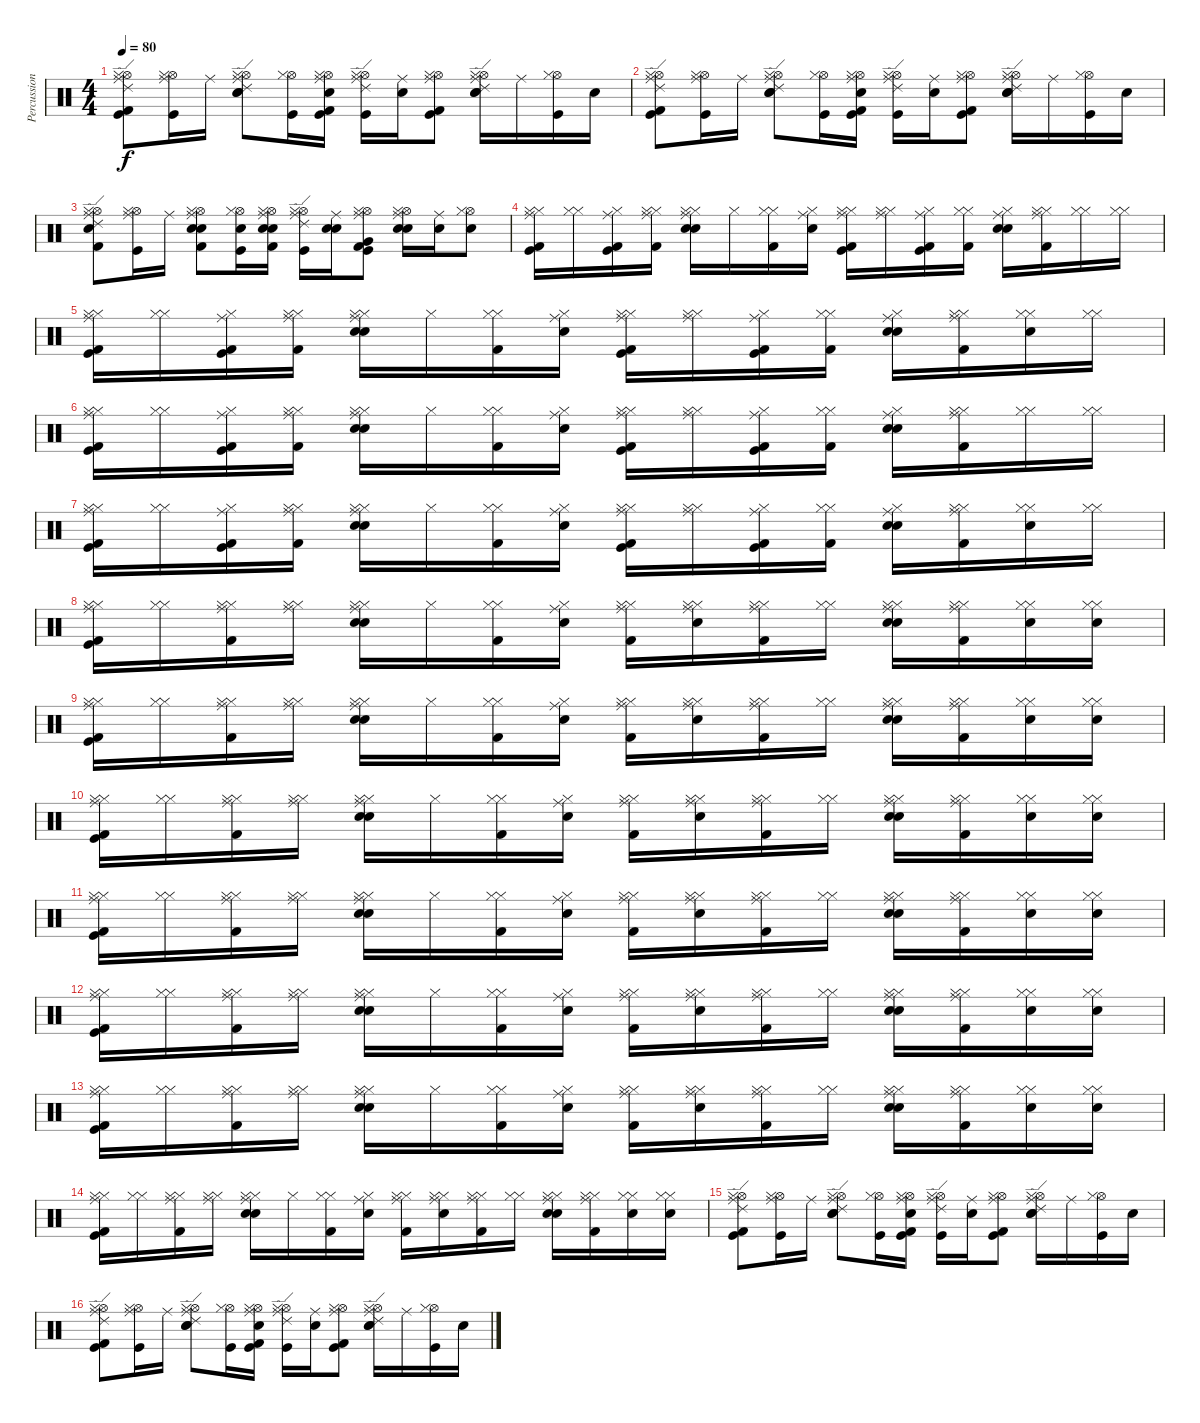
\track ("Percussions" "Percussion") {instrument percussion}
\staff {score}
\articulation defaults
\ts (4 4)
\tempo 80
\clef neutral
\ks c
("Hi-Hat (open)" "Hi-Hat (closed)" "Ride (middle)" "Ride (edge) 2" "Kick (hit)" "Kick (hit) 2").8{dy f} ("Hi-Hat (open)" "Hi-Hat (closed)" "Ride (middle)" "Kick (hit)").16 "Ride (middle)".16 ("Electric Snare (hit)" "Hi-Hat (open)" "Snare (hit) 2" "Hi-Hat (closed)" "Ride (middle)" "Ride (edge) 2").8 ("Hi-Hat (open)" "Hi-Hat (closed)" "Kick (hit)").16 ("Hi-Hat (open)" "Hi-Hat (closed)" "Ride (middle)" "Snare (hit) 2" "Kick (hit)" "Kick (hit) 2").16 ("Hi-Hat (open)" "Hi-Hat (closed)" "Ride (middle)" "Kick (hit)" "Ride (edge) 2").16 ("Ride (middle)" "Snare (hit) 2").16 ("Hi-Hat (open)" "Hi-Hat (closed)" "Ride (middle)" "Kick (hit)" "Kick (hit) 2").8 ("Electric Snare (hit)" "Hi-Hat (open)" "Snare (hit) 2" "Hi-Hat (closed)" "Ride (middle)" "Ride (edge) 2").16 "Ride (middle)".16 ("Hi-Hat (open)" "Hi-Hat (closed)" "Kick (hit)").16 "Snare (hit) 2".16 |
("Hi-Hat (open)" "Hi-Hat (closed)" "Ride (middle)" "Ride (edge) 2" "Kick (hit)" "Kick (hit) 2").8 ("Hi-Hat (open)" "Hi-Hat (closed)" "Ride (middle)" "Kick (hit)").16 "Ride (middle)".16 ("Electric Snare (hit)" "Hi-Hat (open)" "Snare (hit) 2" "Hi-Hat (closed)" "Ride (middle)" "Ride (edge) 2").8 ("Hi-Hat (open)" "Hi-Hat (closed)" "Kick (hit)").16 ("Hi-Hat (open)" "Hi-Hat (closed)" "Ride (middle)" "Snare (hit) 2" "Kick (hit)" "Kick (hit) 2").16 ("Hi-Hat (open)" "Hi-Hat (closed)" "Ride (middle)" "Kick (hit)" "Ride (edge) 2").16 ("Ride (middle)" "Snare (hit) 2").16 ("Hi-Hat (open)" "Hi-Hat (closed)" "Ride (middle)" "Kick (hit)" "Kick (hit) 2").8 ("Electric Snare (hit)" "Hi-Hat (open)" "Snare (hit) 2" "Hi-Hat (closed)" "Ride (middle)" "Ride (edge) 2").16 "Ride (middle)".16 ("Hi-Hat (open)" "Hi-Hat (closed)" "Kick (hit)").16 "Snare (hit) 2".16 |
("Hi-Hat (open)" "Hi-Hat (closed)" "Ride (middle)" "Electric Snare (hit)" "Ride (edge) 2" "Kick (hit) 2").8 ("Hi-Hat (open)" "Hi-Hat (closed)" "Ride (middle)" "Kick (hit)").16 "Ride (middle)".16 ("Electric Snare (hit)" "Hi-Hat (open)" "Snare (hit) 2" "Hi-Hat (closed)" "Ride (middle)" "Kick (hit) 2").8 ("Hi-Hat (open)" "Hi-Hat (closed)" "Electric Snare (hit)" "Kick (hit)").16 ("Hi-Hat (open)" "Hi-Hat (closed)" "Ride (middle)" "Electric Snare (hit)" "Snare (hit) 2" "Kick (hit) 2").16 ("Hi-Hat (open)" "Hi-Hat (closed)" "Ride (middle)" "Kick (hit)" "Ride (edge) 2").16 ("Ride (middle)" "Electric Snare (hit)" "Snare (hit) 2").16 ("Hi-Hat (open)" "Hi-Hat (closed)" "Ride (middle)" "Very Low Tom (hit)" "Kick (hit)" "Kick (hit) 2").8 ("Electric Snare (hit)" "Hi-Hat (open)" "Snare (hit) 2" "Hi-Hat (closed)" "Ride (middle)").16 ("Ride (middle)" "Electric Snare (hit)").16 ("Hi-Hat (open)" "Hi-Hat (closed)" "Electric Snare (hit)").8 |
("Ride (middle)" "Hi-Hat (closed)" "Hi-Hat (closed)" "Kick (hit)" "Kick (hit) 2").16 ("Hi-Hat (closed)" "Hi-Hat (closed)").16 ("Hi-Hat (closed)" "Ride (middle)" "Kick (hit)" "Kick (hit) 2").16 ("Hi-Hat (closed)" "Hi-Hat (closed)" "Ride (middle)" "Kick (hit) 2").16 ("Snare (hit) 2" "Electric Snare (hit)" "Hi-Hat (closed)" "Hi-Hat (closed)" "Ride (middle)").16 "Hi-Hat (closed)".16 ("Hi-Hat (closed)" "Hi-Hat (closed)" "Kick (hit) 2").16 ("Electric Snare (hit)" "Hi-Hat (closed)" "Ride (middle)").16 ("Hi-Hat (closed)" "Hi-Hat (closed)" "Ride (middle)" "Kick (hit)" "Kick (hit) 2").16 ("Hi-Hat (closed)" "Hi-Hat (closed)" "Ride (middle)").16 ("Hi-Hat (closed)" "Ride (middle)" "Kick (hit) 2" "Kick (hit)").16 ("Hi-Hat (closed)" "Hi-Hat (closed)" "Kick (hit) 2").16 ("Snare (hit) 2" "Electric Snare (hit)" "Hi-Hat (closed)" "Ride (middle)").16 ("Hi-Hat (closed)" "Hi-Hat (closed)" "Ride (middle)" "Kick (hit) 2").16 ("Hi-Hat (closed)" "Hi-Hat (closed)").16 ("Hi-Hat (closed)" "Hi-Hat (closed)").16 |
("Hi-Hat (closed)" "Hi-Hat (closed)" "Ride (middle)" "Kick (hit) 2" "Kick (hit)").16 ("Hi-Hat (closed)" "Hi-Hat (closed)").16 ("Hi-Hat (closed)" "Ride (middle)" "Kick (hit)" "Kick (hit) 2").16 ("Hi-Hat (closed)" "Hi-Hat (closed)" "Ride (middle)" "Kick (hit) 2").16 ("Snare (hit) 2" "Electric Snare (hit)" "Hi-Hat (closed)" "Hi-Hat (closed)" "Ride (middle)").16 "Hi-Hat (closed)".16 ("Hi-Hat (closed)" "Hi-Hat (closed)" "Kick (hit) 2").16 ("Electric Snare (hit)" "Hi-Hat (closed)" "Ride (middle)").16 ("Hi-Hat (closed)" "Hi-Hat (closed)" "Ride (middle)" "Kick (hit)" "Kick (hit) 2").16 ("Hi-Hat (closed)" "Hi-Hat (closed)" "Ride (middle)").16 ("Hi-Hat (closed)" "Ride (middle)" "Kick (hit) 2" "Kick (hit)").16 ("Hi-Hat (closed)" "Hi-Hat (closed)" "Kick (hit) 2").16 ("Ride (middle)" "Snare (hit) 2" "Electric Snare (hit)" "Hi-Hat (closed)").16 ("Hi-Hat (closed)" "Hi-Hat (closed)" "Ride (middle)" "Kick (hit) 2").16 ("Hi-Hat (closed)" "Hi-Hat (closed)" "Electric Snare (hit)").16 ("Hi-Hat (closed)" "Hi-Hat (closed)").16 |
("Ride (middle)" "Hi-Hat (closed)" "Hi-Hat (closed)" "Kick (hit)" "Kick (hit) 2").16 ("Hi-Hat (closed)" "Hi-Hat (closed)").16 ("Hi-Hat (closed)" "Ride (middle)" "Kick (hit)" "Kick (hit) 2").16 ("Hi-Hat (closed)" "Hi-Hat (closed)" "Ride (middle)" "Kick (hit) 2").16 ("Snare (hit) 2" "Electric Snare (hit)" "Hi-Hat (closed)" "Hi-Hat (closed)" "Ride (middle)").16 "Hi-Hat (closed)".16 ("Hi-Hat (closed)" "Hi-Hat (closed)" "Kick (hit) 2").16 ("Electric Snare (hit)" "Hi-Hat (closed)" "Ride (middle)").16 ("Hi-Hat (closed)" "Hi-Hat (closed)" "Ride (middle)" "Kick (hit)" "Kick (hit) 2").16 ("Hi-Hat (closed)" "Hi-Hat (closed)" "Ride (middle)").16 ("Hi-Hat (closed)" "Ride (middle)" "Kick (hit) 2" "Kick (hit)").16 ("Hi-Hat (closed)" "Hi-Hat (closed)" "Kick (hit) 2").16 ("Snare (hit) 2" "Electric Snare (hit)" "Hi-Hat (closed)" "Ride (middle)").16 ("Hi-Hat (closed)" "Hi-Hat (closed)" "Ride (middle)" "Kick (hit) 2").16 ("Hi-Hat (closed)" "Hi-Hat (closed)").16 ("Hi-Hat (closed)" "Hi-Hat (closed)").16 |
("Hi-Hat (closed)" "Hi-Hat (closed)" "Ride (middle)" "Kick (hit) 2" "Kick (hit)").16 ("Hi-Hat (closed)" "Hi-Hat (closed)").16 ("Hi-Hat (closed)" "Ride (middle)" "Kick (hit)" "Kick (hit) 2").16 ("Hi-Hat (closed)" "Hi-Hat (closed)" "Ride (middle)" "Kick (hit) 2").16 ("Snare (hit) 2" "Electric Snare (hit)" "Hi-Hat (closed)" "Hi-Hat (closed)" "Ride (middle)").16 "Hi-Hat (closed)".16 ("Hi-Hat (closed)" "Hi-Hat (closed)" "Kick (hit) 2").16 ("Electric Snare (hit)" "Hi-Hat (closed)" "Ride (middle)").16 ("Hi-Hat (closed)" "Hi-Hat (closed)" "Ride (middle)" "Kick (hit)" "Kick (hit) 2").16 ("Hi-Hat (closed)" "Hi-Hat (closed)" "Ride (middle)").16 ("Hi-Hat (closed)" "Ride (middle)" "Kick (hit) 2" "Kick (hit)").16 ("Hi-Hat (closed)" "Hi-Hat (closed)" "Kick (hit) 2").16 ("Ride (middle)" "Snare (hit) 2" "Electric Snare (hit)" "Hi-Hat (closed)").16 ("Hi-Hat (closed)" "Hi-Hat (closed)" "Ride (middle)" "Kick (hit) 2").16 ("Hi-Hat (closed)" "Hi-Hat (closed)" "Electric Snare (hit)").16 ("Hi-Hat (closed)" "Hi-Hat (closed)").16 |
("Hi-Hat (closed)" "Hi-Hat (closed)" "Ride (middle)" "Kick (hit) 2" "Kick (hit)").16 ("Hi-Hat (closed)" "Hi-Hat (closed)").16 ("Hi-Hat (closed)" "Ride (middle)" "Hi-Hat (closed)" "Kick (hit) 2").16 ("Hi-Hat (closed)" "Hi-Hat (closed)" "Ride (middle)").16 ("Snare (hit) 2" "Electric Snare (hit)" "Hi-Hat (closed)" "Hi-Hat (closed)" "Ride (middle)").16 "Hi-Hat (closed)".16 ("Hi-Hat (closed)" "Hi-Hat (closed)" "Kick (hit) 2").16 ("Electric Snare (hit)" "Hi-Hat (closed)" "Ride (middle)").16 ("Hi-Hat (closed)" "Hi-Hat (closed)" "Ride (middle)" "Kick (hit) 2").16 ("Hi-Hat (closed)" "Hi-Hat (closed)" "Ride (middle)" "Electric Snare (hit)").16 ("Hi-Hat (closed)" "Ride (middle)" "Hi-Hat (closed)" "Kick (hit) 2").16 ("Hi-Hat (closed)" "Hi-Hat (closed)").16 ("Snare (hit) 2" "Electric Snare (hit)" "Hi-Hat (closed)" "Ride (middle)" "Hi-Hat (closed)").16 ("Hi-Hat (closed)" "Hi-Hat (closed)" "Ride (middle)" "Kick (hit) 2").16 ("Hi-Hat (closed)" "Hi-Hat (closed)" "Electric Snare (hit)").16 ("Hi-Hat (closed)" "Hi-Hat (closed)" "Electric Snare (hit)").16 |
("Hi-Hat (closed)" "Hi-Hat (closed)" "Ride (middle)" "Kick (hit) 2" "Kick (hit)").16 ("Hi-Hat (closed)" "Hi-Hat (closed)").16 ("Hi-Hat (closed)" "Ride (middle)" "Hi-Hat (closed)" "Kick (hit) 2").16 ("Hi-Hat (closed)" "Hi-Hat (closed)" "Ride (middle)").16 ("Snare (hit) 2" "Electric Snare (hit)" "Hi-Hat (closed)" "Hi-Hat (closed)" "Ride (middle)").16 "Hi-Hat (closed)".16 ("Hi-Hat (closed)" "Hi-Hat (closed)" "Kick (hit) 2").16 ("Electric Snare (hit)" "Hi-Hat (closed)" "Ride (middle)").16 ("Hi-Hat (closed)" "Hi-Hat (closed)" "Ride (middle)" "Kick (hit) 2").16 ("Hi-Hat (closed)" "Hi-Hat (closed)" "Ride (middle)" "Electric Snare (hit)").16 ("Hi-Hat (closed)" "Ride (middle)" "Hi-Hat (closed)" "Kick (hit) 2").16 ("Hi-Hat (closed)" "Hi-Hat (closed)").16 ("Snare (hit) 2" "Electric Snare (hit)" "Hi-Hat (closed)" "Ride (middle)" "Hi-Hat (closed)").16 ("Hi-Hat (closed)" "Hi-Hat (closed)" "Ride (middle)" "Kick (hit) 2").16 ("Hi-Hat (closed)" "Hi-Hat (closed)" "Electric Snare (hit)").16 ("Hi-Hat (closed)" "Hi-Hat (closed)" "Electric Snare (hit)").16 |
("Hi-Hat (closed)" "Hi-Hat (closed)" "Ride (middle)" "Kick (hit) 2" "Kick (hit)").16 ("Hi-Hat (closed)" "Hi-Hat (closed)").16 ("Hi-Hat (closed)" "Ride (middle)" "Hi-Hat (closed)" "Kick (hit) 2").16 ("Hi-Hat (closed)" "Hi-Hat (closed)" "Ride (middle)").16 ("Snare (hit) 2" "Electric Snare (hit)" "Hi-Hat (closed)" "Hi-Hat (closed)" "Ride (middle)").16 "Hi-Hat (closed)".16 ("Hi-Hat (closed)" "Hi-Hat (closed)" "Kick (hit) 2").16 ("Electric Snare (hit)" "Hi-Hat (closed)" "Ride (middle)").16 ("Hi-Hat (closed)" "Hi-Hat (closed)" "Ride (middle)" "Kick (hit) 2").16 ("Hi-Hat (closed)" "Hi-Hat (closed)" "Ride (middle)" "Electric Snare (hit)").16 ("Hi-Hat (closed)" "Ride (middle)" "Hi-Hat (closed)" "Kick (hit) 2").16 ("Hi-Hat (closed)" "Hi-Hat (closed)").16 ("Snare (hit) 2" "Electric Snare (hit)" "Hi-Hat (closed)" "Ride (middle)" "Hi-Hat (closed)").16 ("Hi-Hat (closed)" "Hi-Hat (closed)" "Ride (middle)" "Kick (hit) 2").16 ("Hi-Hat (closed)" "Hi-Hat (closed)" "Electric Snare (hit)").16 ("Hi-Hat (closed)" "Hi-Hat (closed)" "Electric Snare (hit)").16 |
("Hi-Hat (closed)" "Hi-Hat (closed)" "Ride (middle)" "Kick (hit) 2" "Kick (hit)").16 ("Hi-Hat (closed)" "Hi-Hat (closed)").16 ("Hi-Hat (closed)" "Ride (middle)" "Hi-Hat (closed)" "Kick (hit) 2").16 ("Hi-Hat (closed)" "Hi-Hat (closed)" "Ride (middle)").16 ("Snare (hit) 2" "Electric Snare (hit)" "Hi-Hat (closed)" "Hi-Hat (closed)" "Ride (middle)").16 "Hi-Hat (closed)".16 ("Hi-Hat (closed)" "Hi-Hat (closed)" "Kick (hit) 2").16 ("Electric Snare (hit)" "Hi-Hat (closed)" "Ride (middle)").16 ("Hi-Hat (closed)" "Hi-Hat (closed)" "Ride (middle)" "Kick (hit) 2").16 ("Hi-Hat (closed)" "Hi-Hat (closed)" "Ride (middle)" "Electric Snare (hit)").16 ("Hi-Hat (closed)" "Ride (middle)" "Hi-Hat (closed)" "Kick (hit) 2").16 ("Hi-Hat (closed)" "Hi-Hat (closed)").16 ("Snare (hit) 2" "Electric Snare (hit)" "Hi-Hat (closed)" "Ride (middle)" "Hi-Hat (closed)").16 ("Hi-Hat (closed)" "Hi-Hat (closed)" "Ride (middle)" "Kick (hit) 2").16 ("Hi-Hat (closed)" "Hi-Hat (closed)" "Electric Snare (hit)").16 ("Hi-Hat (closed)" "Hi-Hat (closed)" "Electric Snare (hit)").16 |
("Hi-Hat (closed)" "Hi-Hat (closed)" "Ride (middle)" "Kick (hit) 2" "Kick (hit)").16 ("Hi-Hat (closed)" "Hi-Hat (closed)").16 ("Hi-Hat (closed)" "Ride (middle)" "Hi-Hat (closed)" "Kick (hit) 2").16 ("Hi-Hat (closed)" "Hi-Hat (closed)" "Ride (middle)").16 ("Snare (hit) 2" "Electric Snare (hit)" "Hi-Hat (closed)" "Hi-Hat (closed)" "Ride (middle)").16 "Hi-Hat (closed)".16 ("Hi-Hat (closed)" "Hi-Hat (closed)" "Kick (hit) 2").16 ("Electric Snare (hit)" "Hi-Hat (closed)" "Ride (middle)").16 ("Hi-Hat (closed)" "Hi-Hat (closed)" "Ride (middle)" "Kick (hit) 2").16 ("Hi-Hat (closed)" "Hi-Hat (closed)" "Ride (middle)" "Electric Snare (hit)").16 ("Hi-Hat (closed)" "Ride (middle)" "Hi-Hat (closed)" "Kick (hit) 2").16 ("Hi-Hat (closed)" "Hi-Hat (closed)").16 ("Snare (hit) 2" "Electric Snare (hit)" "Hi-Hat (closed)" "Ride (middle)" "Hi-Hat (closed)").16 ("Hi-Hat (closed)" "Hi-Hat (closed)" "Ride (middle)" "Kick (hit) 2").16 ("Hi-Hat (closed)" "Hi-Hat (closed)" "Electric Snare (hit)").16 ("Hi-Hat (closed)" "Hi-Hat (closed)" "Electric Snare (hit)").16 |
("Hi-Hat (closed)" "Hi-Hat (closed)" "Ride (middle)" "Kick (hit) 2" "Kick (hit)").16 ("Hi-Hat (closed)" "Hi-Hat (closed)").16 ("Hi-Hat (closed)" "Ride (middle)" "Hi-Hat (closed)" "Kick (hit) 2").16 ("Hi-Hat (closed)" "Hi-Hat (closed)" "Ride (middle)").16 ("Snare (hit) 2" "Electric Snare (hit)" "Hi-Hat (closed)" "Hi-Hat (closed)" "Ride (middle)").16 "Hi-Hat (closed)".16 ("Hi-Hat (closed)" "Hi-Hat (closed)" "Kick (hit) 2").16 ("Electric Snare (hit)" "Hi-Hat (closed)" "Ride (middle)").16 ("Hi-Hat (closed)" "Hi-Hat (closed)" "Ride (middle)" "Kick (hit) 2").16 ("Hi-Hat (closed)" "Hi-Hat (closed)" "Ride (middle)" "Electric Snare (hit)").16 ("Hi-Hat (closed)" "Ride (middle)" "Hi-Hat (closed)" "Kick (hit) 2").16 ("Hi-Hat (closed)" "Hi-Hat (closed)").16 ("Snare (hit) 2" "Electric Snare (hit)" "Hi-Hat (closed)" "Ride (middle)" "Hi-Hat (closed)").16 ("Hi-Hat (closed)" "Hi-Hat (closed)" "Ride (middle)" "Kick (hit) 2").16 ("Hi-Hat (closed)" "Hi-Hat (closed)" "Electric Snare (hit)").16 ("Hi-Hat (closed)" "Hi-Hat (closed)" "Electric Snare (hit)").16 |
("Hi-Hat (closed)" "Hi-Hat (closed)" "Ride (middle)" "Kick (hit) 2" "Kick (hit)").16 ("Hi-Hat (closed)" "Hi-Hat (closed)").16 ("Hi-Hat (closed)" "Ride (middle)" "Hi-Hat (closed)" "Kick (hit) 2").16 ("Hi-Hat (closed)" "Hi-Hat (closed)" "Ride (middle)").16 ("Snare (hit) 2" "Electric Snare (hit)" "Hi-Hat (closed)" "Hi-Hat (closed)" "Ride (middle)").16 "Hi-Hat (closed)".16 ("Hi-Hat (closed)" "Hi-Hat (closed)" "Kick (hit) 2").16 ("Electric Snare (hit)" "Hi-Hat (closed)" "Ride (middle)").16 ("Hi-Hat (closed)" "Hi-Hat (closed)" "Ride (middle)" "Kick (hit) 2").16 ("Hi-Hat (closed)" "Hi-Hat (closed)" "Ride (middle)" "Electric Snare (hit)").16 ("Hi-Hat (closed)" "Ride (middle)" "Hi-Hat (closed)" "Kick (hit) 2").16 ("Hi-Hat (closed)" "Hi-Hat (closed)").16 ("Snare (hit) 2" "Electric Snare (hit)" "Hi-Hat (closed)" "Ride (middle)" "Hi-Hat (closed)").16 ("Hi-Hat (closed)" "Hi-Hat (closed)" "Ride (middle)" "Kick (hit) 2").16 ("Hi-Hat (closed)" "Hi-Hat (closed)" "Electric Snare (hit)").16 ("Hi-Hat (closed)" "Hi-Hat (closed)" "Electric Snare (hit)").16 |
("Hi-Hat (open)" "Hi-Hat (closed)" "Ride (middle)" "Ride (edge) 2" "Kick (hit)" "Kick (hit) 2").8 ("Hi-Hat (open)" "Hi-Hat (closed)" "Ride (middle)" "Kick (hit)").16 "Ride (middle)".16 ("Electric Snare (hit)" "Hi-Hat (open)" "Snare (hit) 2" "Hi-Hat (closed)" "Ride (middle)" "Ride (edge) 2").8 ("Hi-Hat (open)" "Hi-Hat (closed)" "Kick (hit)").16 ("Hi-Hat (open)" "Hi-Hat (closed)" "Ride (middle)" "Snare (hit) 2" "Kick (hit)" "Kick (hit) 2").16 ("Hi-Hat (open)" "Hi-Hat (closed)" "Ride (middle)" "Kick (hit)" "Ride (edge) 2").16 ("Ride (middle)" "Snare (hit) 2").16 ("Hi-Hat (open)" "Hi-Hat (closed)" "Ride (middle)" "Kick (hit)" "Kick (hit) 2").8 ("Electric Snare (hit)" "Hi-Hat (open)" "Snare (hit) 2" "Hi-Hat (closed)" "Ride (middle)" "Ride (edge) 2").16 "Ride (middle)".16 ("Hi-Hat (open)" "Hi-Hat (closed)" "Kick (hit)").16 "Snare (hit) 2".16 |
("Hi-Hat (open)" "Hi-Hat (closed)" "Ride (middle)" "Ride (edge) 2" "Kick (hit)" "Kick (hit) 2").8 ("Hi-Hat (open)" "Hi-Hat (closed)" "Ride (middle)" "Kick (hit)").16 "Ride (middle)".16 ("Electric Snare (hit)" "Hi-Hat (open)" "Snare (hit) 2" "Hi-Hat (closed)" "Ride (middle)" "Ride (edge) 2").8 ("Hi-Hat (open)" "Hi-Hat (closed)" "Kick (hit)").16 ("Hi-Hat (open)" "Hi-Hat (closed)" "Ride (middle)" "Snare (hit) 2" "Kick (hit)" "Kick (hit) 2").16 ("Hi-Hat (open)" "Hi-Hat (closed)" "Ride (middle)" "Kick (hit)" "Ride (edge) 2").16 ("Ride (middle)" "Snare (hit) 2").16 ("Hi-Hat (open)" "Hi-Hat (closed)" "Ride (middle)" "Kick (hit)" "Kick (hit) 2").8 ("Electric Snare (hit)" "Hi-Hat (open)" "Snare (hit) 2" "Hi-Hat (closed)" "Ride (middle)" "Ride (edge) 2").16 "Ride (middle)".16 ("Hi-Hat (open)" "Hi-Hat (closed)" "Kick (hit)").16 "Snare (hit) 2".16
